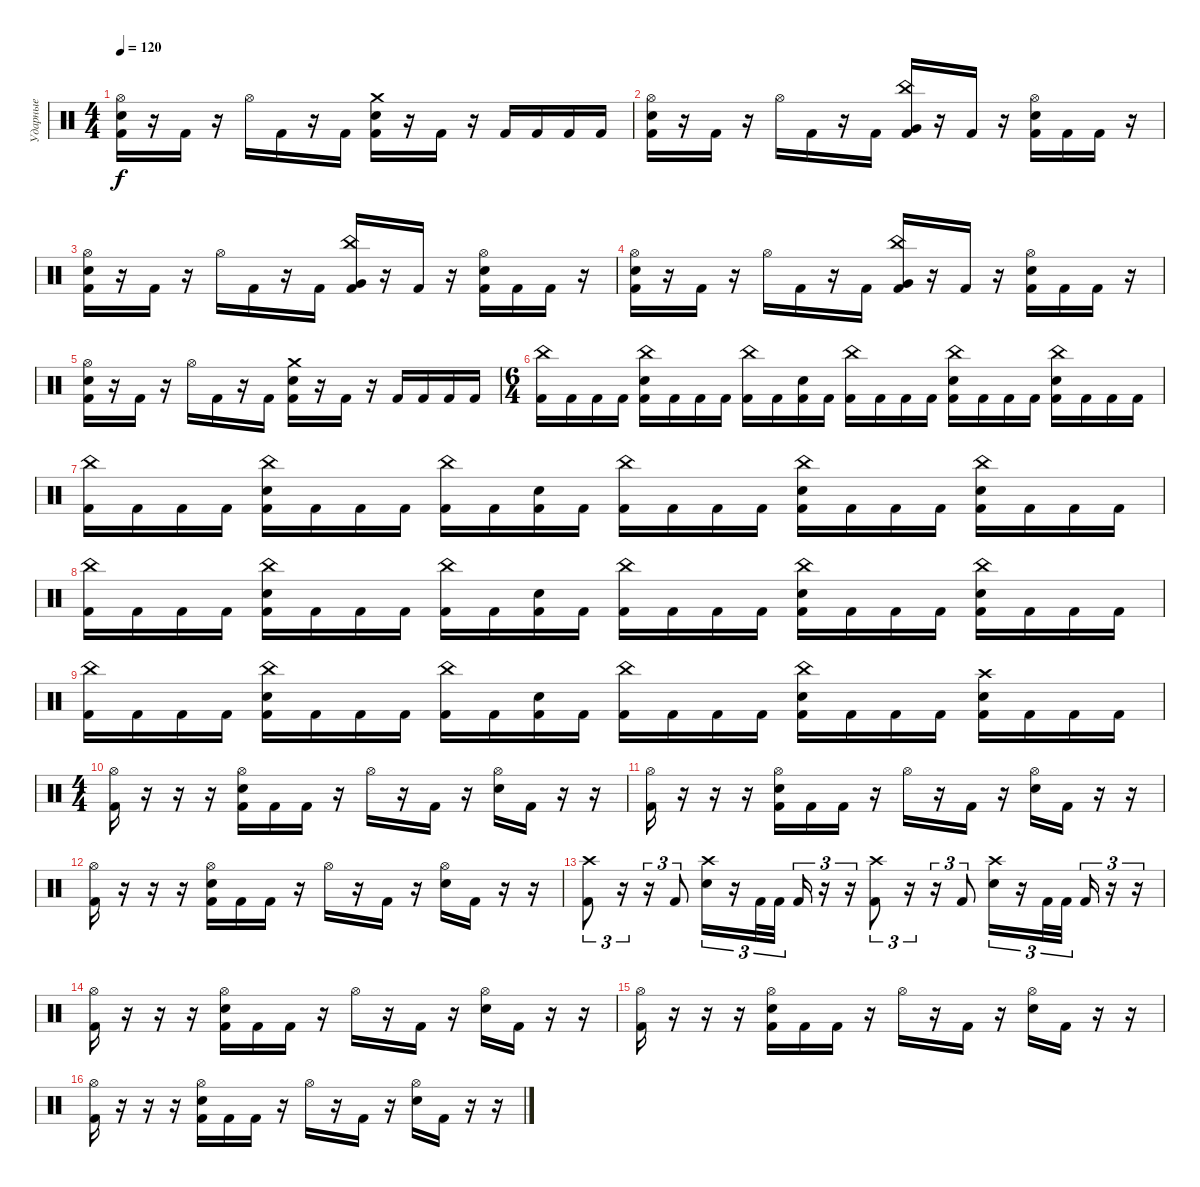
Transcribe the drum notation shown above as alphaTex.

\track ("Ударные" "Ударные") {instrument percussion}
\staff {score}
\articulation defaults
\ts (4 4)
\tempo 120
\clef neutral
\ks c
("Hi-Hat (open)" "Electric Snare (hit)" "Kick (hit) 2").16{dy f} r.16 "Kick (hit) 2".16 r.16 "Hi-Hat (open)".16 "Kick (hit) 2".16 r.16 "Kick (hit) 2".16 ("Crash medium (hit)" "Electric Snare (hit)" "Kick (hit) 2").16 r.16 "Kick (hit) 2".16 r.16 "Kick (hit) 2".16 "Kick (hit) 2".16 "Kick (hit) 2".16 "Kick (hit) 2".16 |
("Hi-Hat (open)" "Electric Snare (hit)" "Kick (hit) 2").16 r.16 "Kick (hit) 2".16 r.16 "Hi-Hat (open)".16 "Kick (hit) 2".16 r.16 "Kick (hit) 2".16 ("China (hit)" "Very Low Tom (hit)" "Kick (hit) 2").16 r.16 "Kick (hit) 2".16 r.16 ("Hi-Hat (open)" "Electric Snare (hit)" "Kick (hit) 2").16 "Kick (hit) 2".16 "Kick (hit) 2".16 r.16 |
("Hi-Hat (open)" "Electric Snare (hit)" "Kick (hit) 2").16 r.16 "Kick (hit) 2".16 r.16 "Hi-Hat (open)".16 "Kick (hit) 2".16 r.16 "Kick (hit) 2".16 ("China (hit)" "Very Low Tom (hit)" "Kick (hit) 2").16 r.16 "Kick (hit) 2".16 r.16 ("Hi-Hat (open)" "Electric Snare (hit)" "Kick (hit) 2").16 "Kick (hit) 2".16 "Kick (hit) 2".16 r.16 |
("Hi-Hat (open)" "Electric Snare (hit)" "Kick (hit) 2").16 r.16 "Kick (hit) 2".16 r.16 "Hi-Hat (open)".16 "Kick (hit) 2".16 r.16 "Kick (hit) 2".16 ("China (hit)" "Very Low Tom (hit)" "Kick (hit) 2").16 r.16 "Kick (hit) 2".16 r.16 ("Hi-Hat (open)" "Electric Snare (hit)" "Kick (hit) 2").16 "Kick (hit) 2".16 "Kick (hit) 2".16 r.16 |
("Hi-Hat (open)" "Electric Snare (hit)" "Kick (hit) 2").16 r.16 "Kick (hit) 2".16 r.16 "Hi-Hat (open)".16 "Kick (hit) 2".16 r.16 "Kick (hit) 2".16 ("Crash medium (hit)" "Electric Snare (hit)" "Kick (hit) 2").16 r.16 "Kick (hit) 2".16 r.16 "Kick (hit) 2".16 "Kick (hit) 2".16 "Kick (hit) 2".16 "Kick (hit) 2".16 |
\ts (6 4)
("China (hit)" "Kick (hit) 2").16 "Kick (hit) 2".16 "Kick (hit) 2".16 "Kick (hit) 2".16 ("China (hit)" "Electric Snare (hit)" "Kick (hit) 2").16 "Kick (hit) 2".16 "Kick (hit) 2".16 "Kick (hit) 2".16 ("China (hit)" "Kick (hit) 2").16 "Kick (hit) 2".16 ("Electric Snare (hit)" "Kick (hit) 2").16 "Kick (hit) 2".16 ("China (hit)" "Kick (hit) 2").16 "Kick (hit) 2".16 "Kick (hit) 2".16 "Kick (hit) 2".16 ("China (hit)" "Electric Snare (hit)" "Kick (hit) 2").16 "Kick (hit) 2".16 "Kick (hit) 2".16 "Kick (hit) 2".16 ("China (hit)" "Electric Snare (hit)" "Kick (hit) 2").16 "Kick (hit) 2".16 "Kick (hit) 2".16 "Kick (hit) 2".16 |
("China (hit)" "Kick (hit) 2").16 "Kick (hit) 2".16 "Kick (hit) 2".16 "Kick (hit) 2".16 ("China (hit)" "Electric Snare (hit)" "Kick (hit) 2").16 "Kick (hit) 2".16 "Kick (hit) 2".16 "Kick (hit) 2".16 ("China (hit)" "Kick (hit) 2").16 "Kick (hit) 2".16 ("Electric Snare (hit)" "Kick (hit) 2").16 "Kick (hit) 2".16 ("China (hit)" "Kick (hit) 2").16 "Kick (hit) 2".16 "Kick (hit) 2".16 "Kick (hit) 2".16 ("China (hit)" "Electric Snare (hit)" "Kick (hit) 2").16 "Kick (hit) 2".16 "Kick (hit) 2".16 "Kick (hit) 2".16 ("China (hit)" "Electric Snare (hit)" "Kick (hit) 2").16 "Kick (hit) 2".16 "Kick (hit) 2".16 "Kick (hit) 2".16 |
("China (hit)" "Kick (hit) 2").16 "Kick (hit) 2".16 "Kick (hit) 2".16 "Kick (hit) 2".16 ("China (hit)" "Electric Snare (hit)" "Kick (hit) 2").16 "Kick (hit) 2".16 "Kick (hit) 2".16 "Kick (hit) 2".16 ("China (hit)" "Kick (hit) 2").16 "Kick (hit) 2".16 ("Electric Snare (hit)" "Kick (hit) 2").16 "Kick (hit) 2".16 ("China (hit)" "Kick (hit) 2").16 "Kick (hit) 2".16 "Kick (hit) 2".16 "Kick (hit) 2".16 ("China (hit)" "Electric Snare (hit)" "Kick (hit) 2").16 "Kick (hit) 2".16 "Kick (hit) 2".16 "Kick (hit) 2".16 ("China (hit)" "Electric Snare (hit)" "Kick (hit) 2").16 "Kick (hit) 2".16 "Kick (hit) 2".16 "Kick (hit) 2".16 |
("China (hit)" "Kick (hit) 2").16 "Kick (hit) 2".16 "Kick (hit) 2".16 "Kick (hit) 2".16 ("China (hit)" "Electric Snare (hit)" "Kick (hit) 2").16 "Kick (hit) 2".16 "Kick (hit) 2".16 "Kick (hit) 2".16 ("China (hit)" "Kick (hit) 2").16 "Kick (hit) 2".16 ("Electric Snare (hit)" "Kick (hit) 2").16 "Kick (hit) 2".16 ("China (hit)" "Kick (hit) 2").16 "Kick (hit) 2".16 "Kick (hit) 2".16 "Kick (hit) 2".16 ("China (hit)" "Electric Snare (hit)" "Kick (hit) 2").16 "Kick (hit) 2".16 "Kick (hit) 2".16 "Kick (hit) 2".16 ("Crash high (hit)" "Electric Snare (hit)" "Kick (hit) 2").16 "Kick (hit) 2".16 "Kick (hit) 2".16 "Kick (hit) 2".16 |
\ts (4 4)
("Hi-Hat (open)" "Kick (hit) 2").16 r.16 r.16 r.16 ("Hi-Hat (open)" "Electric Snare (hit)" "Kick (hit) 2").16 "Kick (hit) 2".16 "Kick (hit) 2".16 r.16 "Hi-Hat (open)".16 r.16 "Kick (hit) 2".16 r.16 ("Hi-Hat (open)" "Electric Snare (hit)").16 "Kick (hit) 2".16 r.16 r.16 |
("Hi-Hat (open)" "Kick (hit) 2").16 r.16 r.16 r.16 ("Hi-Hat (open)" "Electric Snare (hit)" "Kick (hit) 2").16 "Kick (hit) 2".16 "Kick (hit) 2".16 r.16 "Hi-Hat (open)".16 r.16 "Kick (hit) 2".16 r.16 ("Hi-Hat (open)" "Electric Snare (hit)").16 "Kick (hit) 2".16 r.16 r.16 |
("Hi-Hat (open)" "Kick (hit) 2").16 r.16 r.16 r.16 ("Hi-Hat (open)" "Electric Snare (hit)" "Kick (hit) 2").16 "Kick (hit) 2".16 "Kick (hit) 2".16 r.16 "Hi-Hat (open)".16 r.16 "Kick (hit) 2".16 r.16 ("Hi-Hat (open)" "Electric Snare (hit)").16 "Kick (hit) 2".16 r.16 r.16 |
("Crash high (hit)" "Kick (hit) 2").8{tu (3 2)} r.16{tu (3 2)} r.16{tu (3 2)} "Kick (hit) 2".8{tu (3 2)} ("Crash high (hit)" "Electric Snare (hit)").16{tu (3 2)} r.16{tu (3 2)} "Kick (hit) 2".32{tu (3 2)} "Kick (hit) 2".32{tu (3 2) beam splitsecondary} "Kick (hit) 2".16{tu (3 2)} r.16{tu (3 2)} r.16{tu (3 2)} ("Crash high (hit)" "Kick (hit) 2").8{tu (3 2)} r.16{tu (3 2)} r.16{tu (3 2)} "Kick (hit) 2".8{tu (3 2)} ("Crash high (hit)" "Electric Snare (hit)").16{tu (3 2)} r.16{tu (3 2)} "Kick (hit) 2".32{tu (3 2)} "Kick (hit) 2".32{tu (3 2) beam splitsecondary} "Kick (hit) 2".16{tu (3 2)} r.16{tu (3 2)} r.16{tu (3 2)} |
("Hi-Hat (open)" "Kick (hit) 2").16 r.16 r.16 r.16 ("Hi-Hat (open)" "Electric Snare (hit)" "Kick (hit) 2").16 "Kick (hit) 2".16 "Kick (hit) 2".16 r.16 "Hi-Hat (open)".16 r.16 "Kick (hit) 2".16 r.16 ("Hi-Hat (open)" "Electric Snare (hit)").16 "Kick (hit) 2".16 r.16 r.16 |
("Hi-Hat (open)" "Kick (hit) 2").16 r.16 r.16 r.16 ("Hi-Hat (open)" "Electric Snare (hit)" "Kick (hit) 2").16 "Kick (hit) 2".16 "Kick (hit) 2".16 r.16 "Hi-Hat (open)".16 r.16 "Kick (hit) 2".16 r.16 ("Hi-Hat (open)" "Electric Snare (hit)").16 "Kick (hit) 2".16 r.16 r.16 |
("Hi-Hat (open)" "Kick (hit) 2").16 r.16 r.16 r.16 ("Hi-Hat (open)" "Electric Snare (hit)" "Kick (hit) 2").16 "Kick (hit) 2".16 "Kick (hit) 2".16 r.16 "Hi-Hat (open)".16 r.16 "Kick (hit) 2".16 r.16 ("Hi-Hat (open)" "Electric Snare (hit)").16 "Kick (hit) 2".16 r.16 r.16
